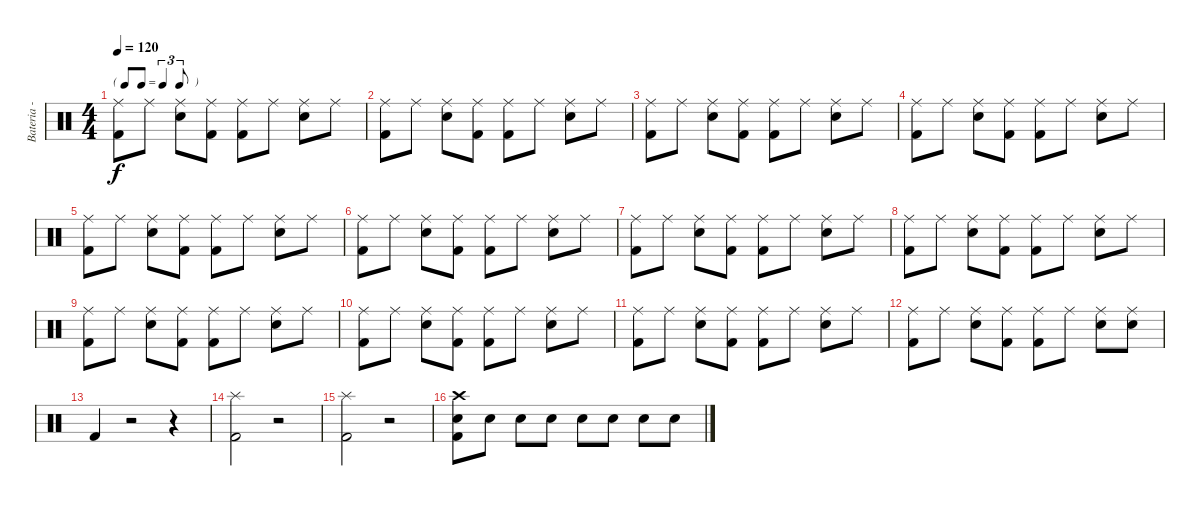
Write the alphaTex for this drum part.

\track ("Bateria - Cris Layton" "Bateria - ") {instrument percussion}
\staff {score}
\articulation defaults
\ts (4 4)
\tf triplet8th
\tempo 120
\clef neutral
\ks c
("Ride (middle)" "Kick (hit) 2").8{dy f} "Ride (middle)".8 ("Ride (middle)" "Electric Snare (hit)").8 ("Ride (middle)" "Kick (hit) 2").8 ("Ride (middle)" "Kick (hit) 2").8 "Ride (middle)".8 ("Ride (middle)" "Electric Snare (hit)").8 "Ride (middle)".8 |
("Ride (middle)" "Kick (hit) 2").8 "Ride (middle)".8 ("Ride (middle)" "Electric Snare (hit)").8 ("Ride (middle)" "Kick (hit) 2").8 ("Ride (middle)" "Kick (hit) 2").8 "Ride (middle)".8 ("Ride (middle)" "Electric Snare (hit)").8 "Ride (middle)".8 |
("Ride (middle)" "Kick (hit) 2").8 "Ride (middle)".8 ("Ride (middle)" "Electric Snare (hit)").8 ("Ride (middle)" "Kick (hit) 2").8 ("Ride (middle)" "Kick (hit) 2").8 "Ride (middle)".8 ("Ride (middle)" "Electric Snare (hit)").8 "Ride (middle)".8 |
("Ride (middle)" "Kick (hit) 2").8 "Ride (middle)".8 ("Ride (middle)" "Electric Snare (hit)").8 ("Ride (middle)" "Kick (hit) 2").8 ("Ride (middle)" "Kick (hit) 2").8 "Ride (middle)".8 ("Ride (middle)" "Electric Snare (hit)").8 "Ride (middle)".8 |
("Ride (middle)" "Kick (hit) 2").8 "Ride (middle)".8 ("Ride (middle)" "Electric Snare (hit)").8 ("Ride (middle)" "Kick (hit) 2").8 ("Ride (middle)" "Kick (hit) 2").8 "Ride (middle)".8 ("Ride (middle)" "Electric Snare (hit)").8 "Ride (middle)".8 |
("Ride (middle)" "Kick (hit) 2").8 "Ride (middle)".8 ("Ride (middle)" "Electric Snare (hit)").8 ("Ride (middle)" "Kick (hit) 2").8 ("Ride (middle)" "Kick (hit) 2").8 "Ride (middle)".8 ("Ride (middle)" "Electric Snare (hit)").8 "Ride (middle)".8 |
("Ride (middle)" "Kick (hit) 2").8 "Ride (middle)".8 ("Ride (middle)" "Electric Snare (hit)").8 ("Ride (middle)" "Kick (hit) 2").8 ("Ride (middle)" "Kick (hit) 2").8 "Ride (middle)".8 ("Ride (middle)" "Electric Snare (hit)").8 "Ride (middle)".8 |
("Ride (middle)" "Kick (hit) 2").8 "Ride (middle)".8 ("Ride (middle)" "Electric Snare (hit)").8 ("Ride (middle)" "Kick (hit) 2").8 ("Ride (middle)" "Kick (hit) 2").8 "Ride (middle)".8 ("Ride (middle)" "Electric Snare (hit)").8 "Ride (middle)".8 |
("Ride (middle)" "Kick (hit) 2").8 "Ride (middle)".8 ("Ride (middle)" "Electric Snare (hit)").8 ("Ride (middle)" "Kick (hit) 2").8 ("Ride (middle)" "Kick (hit) 2").8 "Ride (middle)".8 ("Ride (middle)" "Electric Snare (hit)").8 "Ride (middle)".8 |
("Ride (middle)" "Kick (hit) 2").8 "Ride (middle)".8 ("Ride (middle)" "Electric Snare (hit)").8 ("Ride (middle)" "Kick (hit) 2").8 ("Ride (middle)" "Kick (hit) 2").8 "Ride (middle)".8 ("Ride (middle)" "Electric Snare (hit)").8 "Ride (middle)".8 |
("Ride (middle)" "Kick (hit) 2").8 "Ride (middle)".8 ("Ride (middle)" "Electric Snare (hit)").8 ("Ride (middle)" "Kick (hit) 2").8 ("Ride (middle)" "Kick (hit) 2").8 "Ride (middle)".8 ("Ride (middle)" "Electric Snare (hit)").8 "Ride (middle)".8 |
("Ride (middle)" "Kick (hit) 2").8 "Ride (middle)".8 ("Ride (middle)" "Electric Snare (hit)").8 ("Ride (middle)" "Kick (hit) 2").8 ("Ride (middle)" "Kick (hit) 2").8 "Ride (middle)".8 ("Ride (middle)" "Electric Snare (hit)").8 ("Ride (middle)" "Electric Snare (hit)").8 |
"Kick (hit) 2".4 r.2 r.4 |
("Splash (hit)" "Kick (hit) 2").2 r.2 |
("Splash (hit)" "Kick (hit) 2").2 r.2 |
("Crash high (hit)" "Electric Snare (hit)" "Kick (hit) 2").8 "Electric Snare (hit)".8 "Electric Snare (hit)".8 "Electric Snare (hit)".8 "Electric Snare (hit)".8 "Electric Snare (hit)".8 "Electric Snare (hit)".8 "Electric Snare (hit)".8
